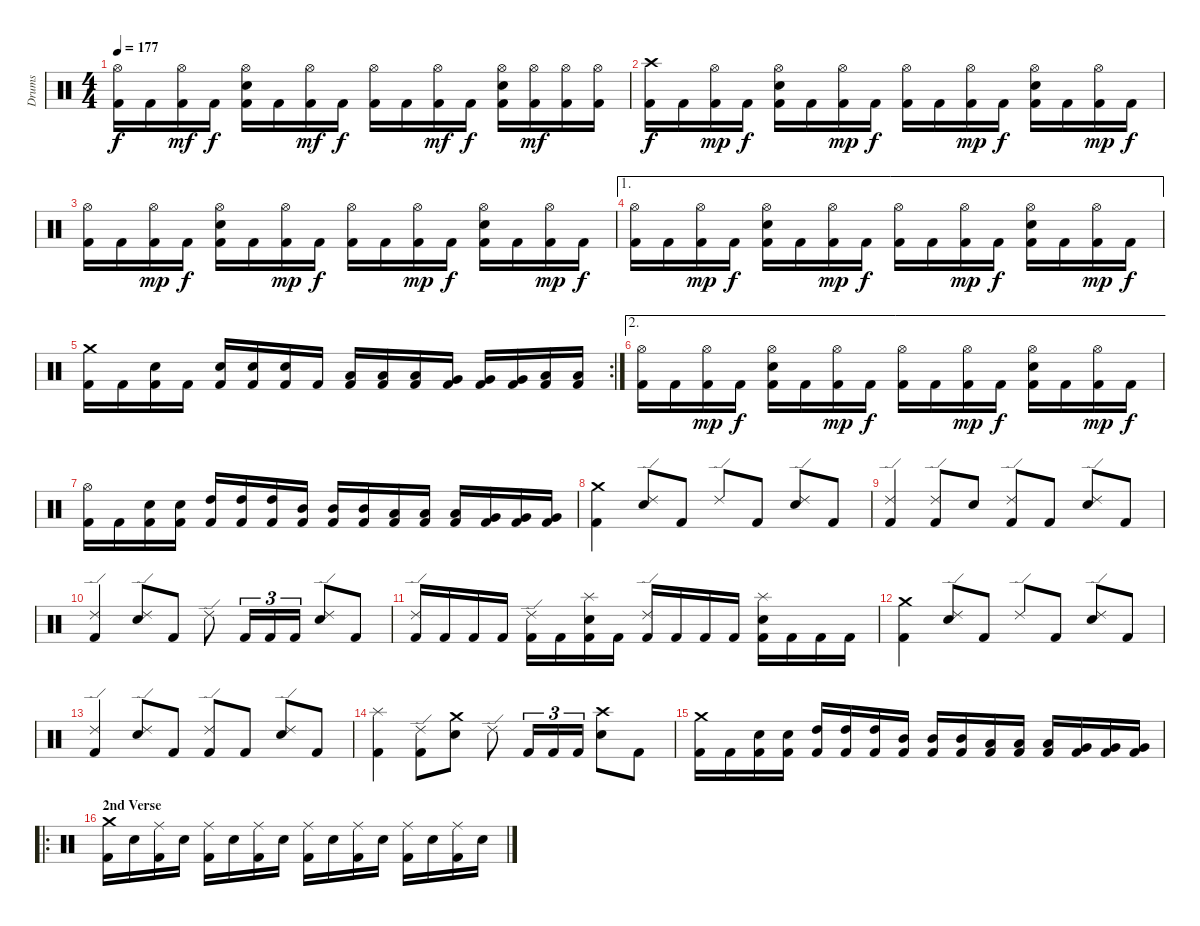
\track ("Drums" "Drums") {instrument percussion}
\staff {score}
\articulation defaults
\ts (4 4)
\tempo 177
\clef neutral
\ks c
("Kick (hit) 2" "Hi-Hat (open)").16{dy f} "Kick (hit) 2".16 ("Kick (hit) 2" "Hi-Hat (open)").16{dy mf} "Kick (hit) 2".16{dy f} ("Kick (hit) 2" "Electric Snare (hit)" "Hi-Hat (open)").16 "Kick (hit) 2".16 ("Kick (hit) 2" "Hi-Hat (open)").16{dy mf} "Kick (hit) 2".16{dy f} ("Kick (hit) 2" "Hi-Hat (open)").16 "Kick (hit) 2".16 ("Kick (hit) 2" "Hi-Hat (open)").16{dy mf} "Kick (hit) 2".16{dy f} ("Kick (hit) 2" "Electric Snare (hit)" "Hi-Hat (open)").16 ("Kick (hit) 2" "Hi-Hat (open)").16{dy mf} ("Kick (hit) 2" "Hi-Hat (open)").16 ("Kick (hit) 2" "Hi-Hat (open)").16 |
("Kick (hit) 2" "Crash high (hit)").16{dy f} "Kick (hit) 2".16 ("Kick (hit) 2" "Hi-Hat (open)").16{dy mp} "Kick (hit) 2".16{dy f} ("Kick (hit) 2" "Electric Snare (hit)" "Hi-Hat (open)").16 "Kick (hit) 2".16 ("Kick (hit) 2" "Hi-Hat (open)").16{dy mp} "Kick (hit) 2".16{dy f} ("Kick (hit) 2" "Hi-Hat (open)").16 "Kick (hit) 2".16 ("Kick (hit) 2" "Hi-Hat (open)").16{dy mp} "Kick (hit) 2".16{dy f} ("Kick (hit) 2" "Electric Snare (hit)" "Hi-Hat (open)").16 "Kick (hit) 2".16 ("Kick (hit) 2" "Hi-Hat (open)").16{dy mp} "Kick (hit) 2".16{dy f} |
("Kick (hit) 2" "Hi-Hat (open)").16 "Kick (hit) 2".16 ("Kick (hit) 2" "Hi-Hat (open)").16{dy mp} "Kick (hit) 2".16{dy f} ("Kick (hit) 2" "Electric Snare (hit)" "Hi-Hat (open)").16 "Kick (hit) 2".16 ("Kick (hit) 2" "Hi-Hat (open)").16{dy mp} "Kick (hit) 2".16{dy f} ("Kick (hit) 2" "Hi-Hat (open)").16 "Kick (hit) 2".16 ("Kick (hit) 2" "Hi-Hat (open)").16{dy mp} "Kick (hit) 2".16{dy f} ("Kick (hit) 2" "Electric Snare (hit)" "Hi-Hat (open)").16 "Kick (hit) 2".16 ("Kick (hit) 2" "Hi-Hat (open)").16{dy mp} "Kick (hit) 2".16{dy f} |
\ae 1
("Kick (hit) 2" "Hi-Hat (open)").16 "Kick (hit) 2".16 ("Kick (hit) 2" "Hi-Hat (open)").16{dy mp} "Kick (hit) 2".16{dy f} ("Kick (hit) 2" "Electric Snare (hit)" "Hi-Hat (open)").16 "Kick (hit) 2".16 ("Kick (hit) 2" "Hi-Hat (open)").16{dy mp} "Kick (hit) 2".16{dy f} ("Kick (hit) 2" "Hi-Hat (open)").16 "Kick (hit) 2".16 ("Kick (hit) 2" "Hi-Hat (open)").16{dy mp} "Kick (hit) 2".16{dy f} ("Kick (hit) 2" "Electric Snare (hit)" "Hi-Hat (open)").16 "Kick (hit) 2".16 ("Kick (hit) 2" "Hi-Hat (open)").16{dy mp} "Kick (hit) 2".16{dy f} |
\rc 2
("Kick (hit) 2" "Crash medium (hit)").16 "Kick (hit) 2".16 ("Kick (hit) 2" "Electric Snare (hit)").16 "Kick (hit) 2".16 ("Kick (hit) 2" "Electric Snare (hit)").16 ("Kick (hit) 2" "Electric Snare (hit)").16 ("Kick (hit) 2" "Electric Snare (hit)").16 "Kick (hit) 2".16 ("Kick (hit) 2" "Low Tom (hit)").16 ("Kick (hit) 2" "Low Tom (hit)").16 ("Kick (hit) 2" "Low Tom (hit)").16 ("Kick (hit) 2" "Very Low Tom (hit)").16 ("Kick (hit) 2" "Very Low Tom (hit)").16 ("Kick (hit) 2" "Very Low Tom (hit)").16 ("Kick (hit) 2" "Low Floor Tom (hit)").16 ("Kick (hit) 2" "Low Floor Tom (hit)").16 |
\ae 2
("Kick (hit) 2" "Hi-Hat (open)").16 "Kick (hit) 2".16 ("Kick (hit) 2" "Hi-Hat (open)").16{dy mp} "Kick (hit) 2".16{dy f} ("Kick (hit) 2" "Electric Snare (hit)" "Hi-Hat (open)").16 "Kick (hit) 2".16 ("Kick (hit) 2" "Hi-Hat (open)").16{dy mp} "Kick (hit) 2".16{dy f} ("Kick (hit) 2" "Hi-Hat (open)").16 "Kick (hit) 2".16 ("Kick (hit) 2" "Hi-Hat (open)").16{dy mp} "Kick (hit) 2".16{dy f} ("Kick (hit) 2" "Electric Snare (hit)" "Hi-Hat (open)").16 "Kick (hit) 2".16 ("Kick (hit) 2" "Hi-Hat (open)").16{dy mp} "Kick (hit) 2".16{dy f} |
("Kick (hit) 2" "Hi-Hat (open)").16 "Kick (hit) 2".16 ("Kick (hit) 2" "Electric Snare (hit)").16 ("Kick (hit) 2" "Electric Snare (hit)").16 ("Kick (hit) 2" "High Tom (hit)").16 ("Kick (hit) 2" "High Tom (hit)").16 ("Kick (hit) 2" "High Tom (hit)").16 ("Kick (hit) 2" "Mid Tom (hit)").16 ("Kick (hit) 2" "Mid Tom (hit)").16 ("Kick (hit) 2" "Mid Tom (hit)").16 ("Kick (hit) 2" "Low Tom (hit)").16 ("Kick (hit) 2" "Low Tom (hit)").16 ("Kick (hit) 2" "Low Tom (hit)").16 ("Kick (hit) 2" "Very Low Tom (hit)").16 ("Kick (hit) 2" "Very Low Tom (hit)").16 ("Kick (hit) 2" "Very Low Tom (hit)").16 |
("Kick (hit) 2" "Crash medium (hit)").4 ("Electric Snare (hit)" "Ride (edge) 2").8 "Kick (hit) 2".8 "Ride (edge) 2".8 "Kick (hit) 2".8 ("Electric Snare (hit)" "Ride (edge) 2").8 "Kick (hit) 2".8 |
("Kick (hit) 2" "Ride (edge) 2").4 ("Kick (hit) 2" "Ride (edge) 2").8 "Electric Snare (hit)".8 ("Kick (hit) 2" "Ride (edge) 2").8 "Kick (hit) 2".8 ("Electric Snare (hit)" "Ride (edge) 2").8 "Kick (hit) 2".8 |
("Kick (hit) 2" "Ride (edge) 2").4 ("Electric Snare (hit)" "Ride (edge) 2").8 "Kick (hit) 2".8 "Ride (edge) 2".8 "Kick (hit) 2".16{tu (3 2)} "Kick (hit) 2".16{tu (3 2)} "Kick (hit) 2".16{tu (3 2)} ("Electric Snare (hit)" "Ride (edge) 2").8 "Kick (hit) 2".8 |
("Kick (hit) 2" "Ride (edge) 2").16 "Kick (hit) 2".16 "Kick (hit) 2".16 "Kick (hit) 2".16 ("Kick (hit) 2" "Ride (edge) 2").16 "Kick (hit) 2".16 ("Kick (hit) 2" "Electric Snare (hit)" "Splash (hit)").16 "Kick (hit) 2".16 ("Kick (hit) 2" "Ride (edge) 2").16 "Kick (hit) 2".16 "Kick (hit) 2".16 "Kick (hit) 2".16 ("Kick (hit) 2" "Electric Snare (hit)" "Splash (hit)").16 "Kick (hit) 2".16 "Kick (hit) 2".16 "Kick (hit) 2".16 |
("Kick (hit) 2" "Crash medium (hit)").4 ("Electric Snare (hit)" "Ride (edge) 2").8 "Kick (hit) 2".8 "Ride (edge) 2".8 "Kick (hit) 2".8 ("Electric Snare (hit)" "Ride (edge) 2").8 "Kick (hit) 2".8 |
("Kick (hit) 2" "Ride (edge) 2").4 ("Electric Snare (hit)" "Ride (edge) 2").8 "Kick (hit) 2".8 ("Kick (hit) 2" "Ride (edge) 2").8 "Kick (hit) 2".8 ("Electric Snare (hit)" "Ride (edge) 2").8 "Kick (hit) 2".8 |
("Kick (hit) 2" "Splash (hit)").4 ("Kick (hit) 2" "Ride (edge) 2").8 ("Electric Snare (hit)" "Crash medium (hit)").8 "Ride (edge) 2".8 "Kick (hit) 2".16{tu (3 2)} "Kick (hit) 2".16{tu (3 2)} "Kick (hit) 2".16{tu (3 2)} ("Electric Snare (hit)" "Crash high (hit)").8 "Kick (hit) 2".8 |
("Kick (hit) 2" "Crash medium (hit)").16 "Kick (hit) 2".16 ("Kick (hit) 2" "Electric Snare (hit)").16 ("Kick (hit) 2" "Electric Snare (hit)").16 ("Kick (hit) 2" "High Tom (hit)").16 ("Kick (hit) 2" "High Tom (hit)").16 ("Kick (hit) 2" "High Tom (hit)").16 ("Kick (hit) 2" "Mid Tom (hit)").16 ("Kick (hit) 2" "Mid Tom (hit)").16 ("Kick (hit) 2" "Mid Tom (hit)").16 ("Kick (hit) 2" "Low Tom (hit)").16 ("Kick (hit) 2" "Low Tom (hit)").16 ("Kick (hit) 2" "Low Tom (hit)").16 ("Kick (hit) 2" "Very Low Tom (hit)").16 ("Kick (hit) 2" "Very Low Tom (hit)").16 ("Kick (hit) 2" "Very Low Tom (hit)").16 |
\ro
\section ("" "2nd Verse")
("Kick (hit) 2" "Crash medium (hit)").16 "Electric Snare (hit)".16 ("Kick (hit) 2" "Ride (middle)").16 "Electric Snare (hit)".16 ("Kick (hit) 2" "Ride (middle)").16 "Electric Snare (hit)".16 ("Kick (hit) 2" "Ride (middle)").16 "Electric Snare (hit)".16 ("Kick (hit) 2" "Ride (middle)").16 "Electric Snare (hit)".16 ("Kick (hit) 2" "Ride (middle)").16 "Electric Snare (hit)".16 ("Kick (hit) 2" "Ride (middle)").16 "Electric Snare (hit)".16 ("Kick (hit) 2" "Ride (middle)").16 "Electric Snare (hit)".16
